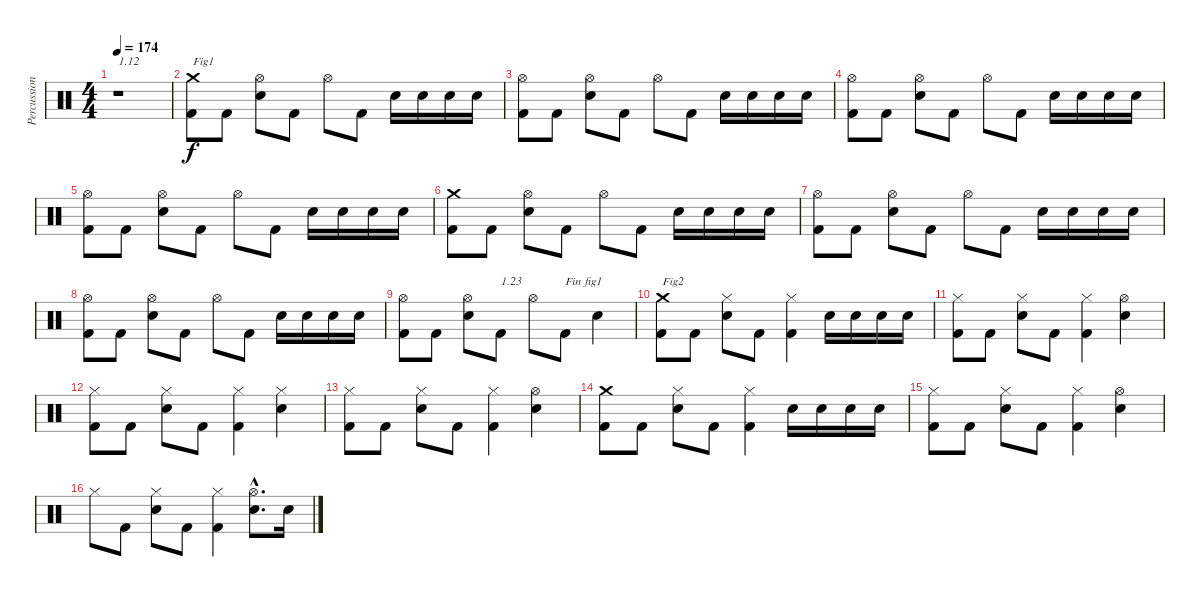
\track ("Percussions" "Percussion") {instrument percussion}
\staff {score}
\articulation defaults
\ts (4 4)
\tempo 174
\clef neutral
\ks c
r.1{txt "1.12" dy f} |
("Kick (hit) 2" "Crash medium (hit)").8{txt "Fig1"} "Kick (hit) 2".8 ("Electric Snare (hit)" "Hi-Hat (open)").8 "Kick (hit) 2".8 "Hi-Hat (open)".8 "Kick (hit) 2".8 "Electric Snare (hit)".16 "Electric Snare (hit)".16 "Electric Snare (hit)".16 "Electric Snare (hit)".16 |
("Kick (hit) 2" "Hi-Hat (open)").8 "Kick (hit) 2".8 ("Electric Snare (hit)" "Hi-Hat (open)").8 "Kick (hit) 2".8 "Hi-Hat (open)".8 "Kick (hit) 2".8 "Electric Snare (hit)".16 "Electric Snare (hit)".16 "Electric Snare (hit)".16 "Electric Snare (hit)".16 |
("Kick (hit) 2" "Hi-Hat (open)").8 "Kick (hit) 2".8 ("Electric Snare (hit)" "Hi-Hat (open)").8 "Kick (hit) 2".8 "Hi-Hat (open)".8 "Kick (hit) 2".8 "Electric Snare (hit)".16 "Electric Snare (hit)".16 "Electric Snare (hit)".16 "Electric Snare (hit)".16 |
("Kick (hit) 2" "Hi-Hat (open)").8 "Kick (hit) 2".8 ("Electric Snare (hit)" "Hi-Hat (open)").8 "Kick (hit) 2".8 "Hi-Hat (open)".8 "Kick (hit) 2".8 "Electric Snare (hit)".16 "Electric Snare (hit)".16 "Electric Snare (hit)".16 "Electric Snare (hit)".16 |
("Kick (hit) 2" "Crash medium (hit)").8 "Kick (hit) 2".8 ("Electric Snare (hit)" "Hi-Hat (open)").8 "Kick (hit) 2".8 "Hi-Hat (open)".8 "Kick (hit) 2".8 "Electric Snare (hit)".16 "Electric Snare (hit)".16 "Electric Snare (hit)".16 "Electric Snare (hit)".16 |
("Kick (hit) 2" "Hi-Hat (open)").8 "Kick (hit) 2".8 ("Electric Snare (hit)" "Hi-Hat (open)").8 "Kick (hit) 2".8 "Hi-Hat (open)".8 "Kick (hit) 2".8 "Electric Snare (hit)".16 "Electric Snare (hit)".16 "Electric Snare (hit)".16 "Electric Snare (hit)".16 |
("Kick (hit) 2" "Hi-Hat (open)").8 "Kick (hit) 2".8 ("Electric Snare (hit)" "Hi-Hat (open)").8 "Kick (hit) 2".8 "Hi-Hat (open)".8 "Kick (hit) 2".8 "Electric Snare (hit)".16 "Electric Snare (hit)".16 "Electric Snare (hit)".16 "Electric Snare (hit)".16 |
("Kick (hit) 2" "Hi-Hat (open)").8 "Kick (hit) 2".8 ("Electric Snare (hit)" "Hi-Hat (open)").8 "Kick (hit) 2".8{txt "1.23"} "Hi-Hat (open)".8 "Kick (hit) 2".8{txt "Fin fig1"} "Electric Snare (hit)".4 |
("Kick (hit) 2" "Crash medium (hit)").8{txt "Fig2"} "Kick (hit) 2".8 ("Electric Snare (hit)" "Hi-Hat (closed)").8 "Kick (hit) 2".8 ("Kick (hit) 2" "Hi-Hat (closed)").4 "Electric Snare (hit)".16 "Electric Snare (hit)".16 "Electric Snare (hit)".16 "Electric Snare (hit)".16 |
("Kick (hit) 2" "Hi-Hat (closed)").8 "Kick (hit) 2".8 ("Electric Snare (hit)" "Hi-Hat (closed)").8 "Kick (hit) 2".8 ("Kick (hit) 2" "Hi-Hat (closed)").4 ("Electric Snare (hit)" "Hi-Hat (open)").4 |
("Kick (hit) 2" "Hi-Hat (closed)").8 "Kick (hit) 2".8 ("Electric Snare (hit)" "Hi-Hat (closed)").8 "Kick (hit) 2".8 ("Kick (hit) 2" "Hi-Hat (closed)").4 ("Electric Snare (hit)" "Hi-Hat (closed)").4 |
("Kick (hit) 2" "Hi-Hat (closed)").8 "Kick (hit) 2".8 ("Electric Snare (hit)" "Hi-Hat (closed)").8 "Kick (hit) 2".8 ("Kick (hit) 2" "Hi-Hat (closed)").4 ("Electric Snare (hit)" "Hi-Hat (open)").4 |
("Kick (hit) 2" "Crash medium (hit)").8 "Kick (hit) 2".8 ("Electric Snare (hit)" "Hi-Hat (closed)").8 "Kick (hit) 2".8 ("Kick (hit) 2" "Hi-Hat (closed)").4 "Electric Snare (hit)".16 "Electric Snare (hit)".16 "Electric Snare (hit)".16 "Electric Snare (hit)".16 |
("Kick (hit) 2" "Hi-Hat (closed)").8 "Kick (hit) 2".8 ("Electric Snare (hit)" "Hi-Hat (closed)").8 "Kick (hit) 2".8 ("Kick (hit) 2" "Hi-Hat (closed)").4 ("Electric Snare (hit)" "Hi-Hat (open)").4 |
"Hi-Hat (closed)".8 "Kick (hit) 2".8 ("Electric Snare (hit)" "Hi-Hat (closed)").8 "Kick (hit) 2".8 ("Kick (hit) 2" "Hi-Hat (closed)").4 ("Electric Snare (hit)"{hac} "Hi-Hat (open)"{hac}).8{d} "Electric Snare (hit)".16
